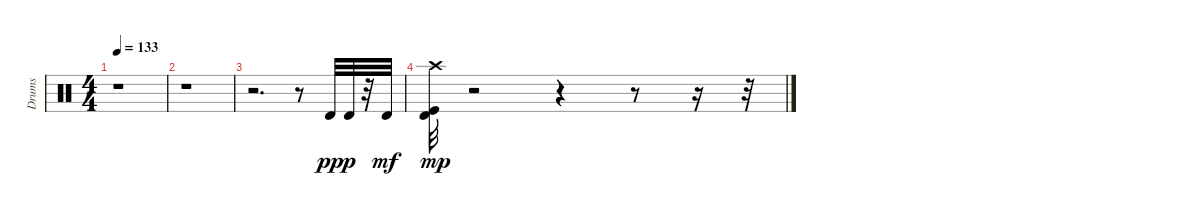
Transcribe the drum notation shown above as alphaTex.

\track ("Drums" "Drums") {instrument percussion}
\staff {score}
\articulation defaults
\ts (4 4)
\tempo 133
\clef neutral
\ks c
r.1{dy p} |
r.1 |
r.2{d} r.8 "Timbale high (hit)".32{dy pp} "Timbale high (hit)".32{dy p} r.32 "Timbale high (hit)".32{dy mf} |
("Kick (hit)" "Crash high (hit)" "Timbale high (hit)").32{dy mp} r.2 r.4 r.8 r.16 r.32
